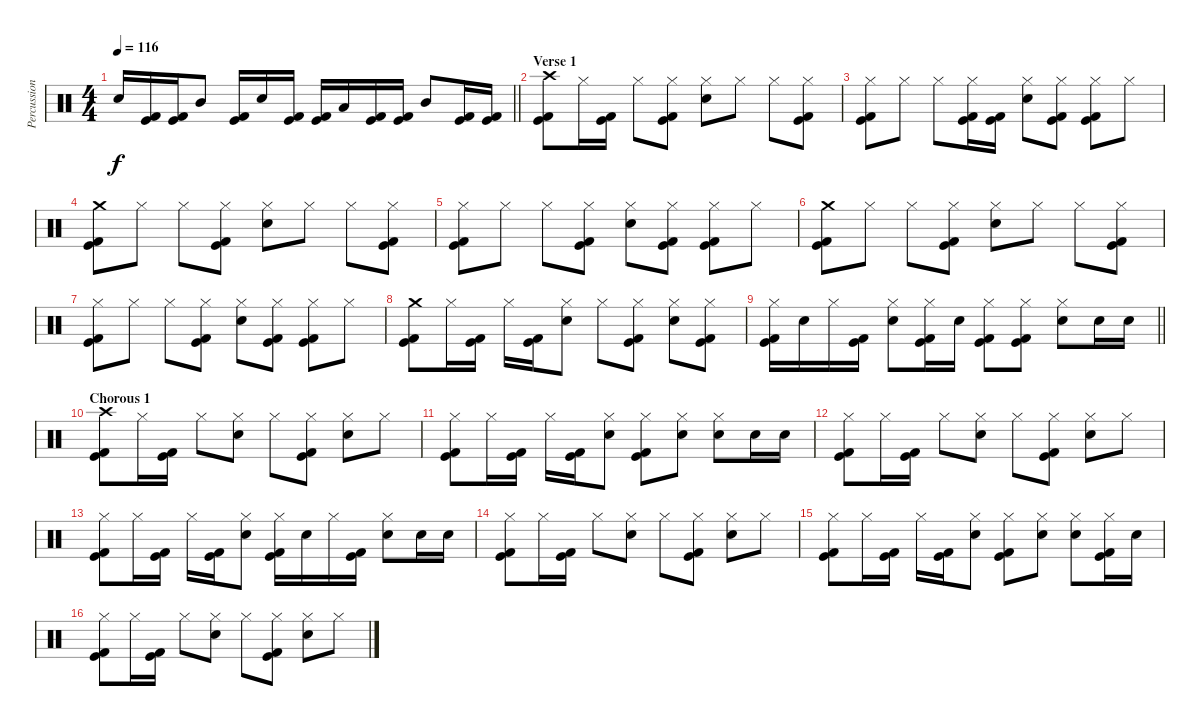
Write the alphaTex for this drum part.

\track ("Percussion" "Percussion") {instrument percussion}
\staff {score}
\articulation defaults
\ts (4 4)
\tempo 116
\clef neutral
\barLineRight lightlight
\ks c "Electric Snare (hit)".16{dy f}
("Kick (hit)" "Kick (hit) 2").16 ("Kick (hit)" "Kick (hit) 2").16 "Mid Tom (hit)".8 ("Kick (hit)" "Kick (hit) 2").16 "Electric Snare (hit)".16 ("Kick (hit)" "Kick (hit) 2").16 ("Kick (hit)" "Kick (hit) 2").16 "Low Tom (hit)".16 ("Kick (hit)" "Kick (hit) 2").16 ("Kick (hit)" "Kick (hit) 2").16 "Mid Tom (hit)".8 ("Kick (hit)" "Kick (hit) 2").16 ("Kick (hit)" "Kick (hit) 2").16 |
\section ("" "Verse 1")
("Crash high (hit)" "Kick (hit)" "Kick (hit) 2").8 "Hi-Hat (closed)".16 ("Kick (hit)" "Kick (hit) 2").16 "Hi-Hat (closed)".8 ("Hi-Hat (closed)" "Kick (hit)" "Kick (hit) 2").8 ("Hi-Hat (closed)" "Electric Snare (hit)").8 "Hi-Hat (closed)".8 "Hi-Hat (closed)".8 ("Hi-Hat (closed)" "Kick (hit)" "Kick (hit) 2").8 |
("Hi-Hat (closed)" "Kick (hit)" "Kick (hit) 2").8 "Hi-Hat (closed)".8 "Hi-Hat (closed)".8 ("Hi-Hat (closed)" "Kick (hit)" "Kick (hit) 2").16 ("Kick (hit)" "Kick (hit) 2").16 ("Hi-Hat (closed)" "Electric Snare (hit)").8 ("Hi-Hat (closed)" "Kick (hit)" "Kick (hit) 2").8 ("Hi-Hat (closed)" "Kick (hit)" "Kick (hit) 2").8 "Hi-Hat (closed)".8 |
("Crash medium (hit)" "Kick (hit)" "Kick (hit) 2").8 "Hi-Hat (closed)".8 "Hi-Hat (closed)".8 ("Hi-Hat (closed)" "Kick (hit)" "Kick (hit) 2").8 ("Hi-Hat (closed)" "Electric Snare (hit)").8 "Hi-Hat (closed)".8 "Hi-Hat (closed)".8 ("Hi-Hat (closed)" "Kick (hit)" "Kick (hit) 2").8 |
("Hi-Hat (closed)" "Kick (hit)" "Kick (hit) 2").8 "Hi-Hat (closed)".8 "Hi-Hat (closed)".8 ("Hi-Hat (closed)" "Kick (hit)" "Kick (hit) 2").8 ("Hi-Hat (closed)" "Electric Snare (hit)").8 ("Hi-Hat (closed)" "Kick (hit)" "Kick (hit) 2").8 ("Hi-Hat (closed)" "Kick (hit)" "Kick (hit) 2").8 "Hi-Hat (closed)".8 |
("Crash medium (hit)" "Kick (hit)" "Kick (hit) 2").8 "Hi-Hat (closed)".8 "Hi-Hat (closed)".8 ("Hi-Hat (closed)" "Kick (hit)" "Kick (hit) 2").8 ("Hi-Hat (closed)" "Electric Snare (hit)").8 "Hi-Hat (closed)".8 "Hi-Hat (closed)".8 ("Hi-Hat (closed)" "Kick (hit)" "Kick (hit) 2").8 |
("Hi-Hat (closed)" "Kick (hit)" "Kick (hit) 2").8 "Hi-Hat (closed)".8 "Hi-Hat (closed)".8 ("Hi-Hat (closed)" "Kick (hit)" "Kick (hit) 2").8 ("Hi-Hat (closed)" "Electric Snare (hit)").8 ("Hi-Hat (closed)" "Kick (hit)" "Kick (hit) 2").8 ("Hi-Hat (closed)" "Kick (hit)" "Kick (hit) 2").8 "Hi-Hat (closed)".8 |
("Crash medium (hit)" "Kick (hit)" "Kick (hit) 2").8 "Hi-Hat (closed)".16 ("Kick (hit)" "Kick (hit) 2").16 "Hi-Hat (closed)".16 ("Kick (hit)" "Kick (hit) 2").16 ("Hi-Hat (closed)" "Electric Snare (hit)").8 "Hi-Hat (closed)".8 ("Hi-Hat (closed)" "Kick (hit)" "Kick (hit) 2").8 ("Hi-Hat (closed)" "Electric Snare (hit)").8 ("Hi-Hat (closed)" "Kick (hit)" "Kick (hit) 2").8 |
\barLineRight lightlight
("Hi-Hat (closed)" "Kick (hit)" "Kick (hit) 2").16 "Electric Snare (hit)".16 "Hi-Hat (closed)".16 ("Kick (hit)" "Kick (hit) 2").16 ("Hi-Hat (closed)" "Electric Snare (hit)").8 ("Hi-Hat (closed)" "Kick (hit)" "Kick (hit) 2").16 "Electric Snare (hit)".16 ("Hi-Hat (closed)" "Kick (hit)" "Kick (hit) 2").8 ("Hi-Hat (closed)" "Kick (hit)" "Kick (hit) 2").8 ("Hi-Hat (closed)" "Electric Snare (hit)").8 "Electric Snare (hit)".16 "Electric Snare (hit)".16 |
\section ("" "Chorous 1")
("Crash high (hit)" "Kick (hit)" "Kick (hit) 2").8 "Hi-Hat (closed)".16 ("Kick (hit)" "Kick (hit) 2").16 "Hi-Hat (closed)".8 ("Hi-Hat (closed)" "Electric Snare (hit)").8 "Hi-Hat (closed)".8 ("Hi-Hat (closed)" "Kick (hit)" "Kick (hit) 2").8 ("Hi-Hat (closed)" "Electric Snare (hit)").8 "Hi-Hat (closed)".8 |
("Hi-Hat (closed)" "Kick (hit)" "Kick (hit) 2").8 "Hi-Hat (closed)".16 ("Kick (hit)" "Kick (hit) 2").16 "Hi-Hat (closed)".16 ("Kick (hit)" "Kick (hit) 2").16 ("Hi-Hat (closed)" "Electric Snare (hit)").8 ("Hi-Hat (closed)" "Kick (hit)" "Kick (hit) 2").8 ("Hi-Hat (closed)" "Electric Snare (hit)").8 ("Hi-Hat (closed)" "Electric Snare (hit)").8 "Electric Snare (hit)".16 "Electric Snare (hit)".16 |
("Hi-Hat (closed)" "Kick (hit)" "Kick (hit) 2").8 "Hi-Hat (closed)".16 ("Kick (hit)" "Kick (hit) 2").16 "Hi-Hat (closed)".8 ("Hi-Hat (closed)" "Electric Snare (hit)").8 "Hi-Hat (closed)".8 ("Hi-Hat (closed)" "Kick (hit)" "Kick (hit) 2").8 ("Hi-Hat (closed)" "Electric Snare (hit)").8 "Hi-Hat (closed)".8 |
("Hi-Hat (closed)" "Kick (hit)" "Kick (hit) 2").8 "Hi-Hat (closed)".16 ("Kick (hit)" "Kick (hit) 2").16 "Hi-Hat (closed)".16 ("Kick (hit)" "Kick (hit) 2").16 ("Hi-Hat (closed)" "Electric Snare (hit)").8 ("Hi-Hat (closed)" "Kick (hit)" "Kick (hit) 2").16 "Electric Snare (hit)".16 "Hi-Hat (closed)".16 ("Kick (hit)" "Kick (hit) 2").16 ("Hi-Hat (closed)" "Electric Snare (hit)").8 "Electric Snare (hit)".16 "Electric Snare (hit)".16 |
("Hi-Hat (closed)" "Kick (hit)" "Kick (hit) 2").8 "Hi-Hat (closed)".16 ("Kick (hit)" "Kick (hit) 2").16 "Hi-Hat (closed)".8 ("Hi-Hat (closed)" "Electric Snare (hit)").8 "Hi-Hat (closed)".8 ("Hi-Hat (closed)" "Kick (hit)" "Kick (hit) 2").8 ("Hi-Hat (closed)" "Electric Snare (hit)").8 "Hi-Hat (closed)".8 |
("Hi-Hat (closed)" "Kick (hit)" "Kick (hit) 2").8 "Hi-Hat (closed)".16 ("Kick (hit)" "Kick (hit) 2").16 "Hi-Hat (closed)".16 ("Kick (hit)" "Kick (hit) 2").16 ("Hi-Hat (closed)" "Electric Snare (hit)").8 ("Hi-Hat (closed)" "Kick (hit)" "Kick (hit) 2").8 ("Hi-Hat (closed)" "Electric Snare (hit)").8 ("Hi-Hat (closed)" "Electric Snare (hit)").8 ("Hi-Hat (closed)" "Kick (hit)" "Kick (hit) 2").16 "Electric Snare (hit)".16 |
("Hi-Hat (closed)" "Kick (hit)" "Kick (hit) 2").8 "Hi-Hat (closed)".16 ("Kick (hit)" "Kick (hit) 2").16 "Hi-Hat (closed)".8 ("Hi-Hat (closed)" "Electric Snare (hit)").8 "Hi-Hat (closed)".8 ("Hi-Hat (closed)" "Kick (hit)" "Kick (hit) 2").8 ("Hi-Hat (closed)" "Electric Snare (hit)").8 "Hi-Hat (closed)".8
